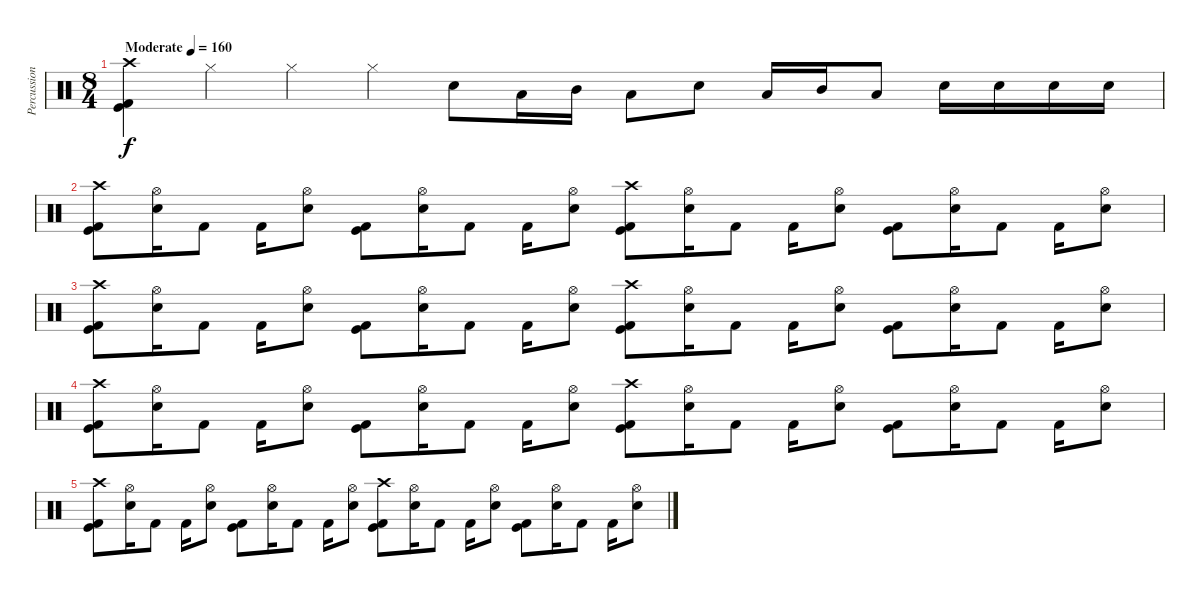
\track ("Percussion" "Percussion") {instrument percussion}
\staff {score}
\articulation defaults
\ts (8 4)
\tempo (160 "Moderate")
\clef neutral
\ks c
("Crash high (hit)" "Kick (hit)" "Kick (hit) 2").4{dy f} "Hi-Hat (closed)".4 "Hi-Hat (closed)".4 "Hi-Hat (closed)".4 "Electric Snare (hit)".8 "Low Tom (hit)".16 "Mid Tom (hit)".16 "Low Tom (hit)".8 "Electric Snare (hit)".8 "Low Tom (hit)".16 "Mid Tom (hit)".16 "Low Tom (hit)".8 "Electric Snare (hit)".16 "Electric Snare (hit)".16 "Electric Snare (hit)".16 "Electric Snare (hit)".16 |
("Crash high (hit)" "Kick (hit)" "Kick (hit) 2").8 ("Hi-Hat (open)" "Electric Snare (hit)").16 "Kick (hit) 2".8 "Kick (hit) 2".16 ("Hi-Hat (open)" "Electric Snare (hit)").8 ("Kick (hit)" "Kick (hit) 2").8 ("Hi-Hat (open)" "Electric Snare (hit)").16 "Kick (hit) 2".8 "Kick (hit) 2".16 ("Hi-Hat (open)" "Electric Snare (hit)").8 ("Crash high (hit)" "Kick (hit)" "Kick (hit) 2").8 ("Hi-Hat (open)" "Electric Snare (hit)").16 "Kick (hit) 2".8 "Kick (hit) 2".16 ("Hi-Hat (open)" "Electric Snare (hit)").8 ("Kick (hit)" "Kick (hit) 2").8 ("Hi-Hat (open)" "Electric Snare (hit)").16 "Kick (hit) 2".8 "Kick (hit) 2".16 ("Hi-Hat (open)" "Electric Snare (hit)").8 |
("Crash high (hit)" "Kick (hit)" "Kick (hit) 2").8 ("Hi-Hat (open)" "Electric Snare (hit)").16 "Kick (hit) 2".8 "Kick (hit) 2".16 ("Hi-Hat (open)" "Electric Snare (hit)").8 ("Kick (hit)" "Kick (hit) 2").8 ("Hi-Hat (open)" "Electric Snare (hit)").16 "Kick (hit) 2".8 "Kick (hit) 2".16 ("Hi-Hat (open)" "Electric Snare (hit)").8 ("Crash high (hit)" "Kick (hit)" "Kick (hit) 2").8 ("Hi-Hat (open)" "Electric Snare (hit)").16 "Kick (hit) 2".8 "Kick (hit) 2".16 ("Hi-Hat (open)" "Electric Snare (hit)").8 ("Kick (hit)" "Kick (hit) 2").8 ("Hi-Hat (open)" "Electric Snare (hit)").16 "Kick (hit) 2".8 "Kick (hit) 2".16 ("Hi-Hat (open)" "Electric Snare (hit)").8 |
("Crash high (hit)" "Kick (hit)" "Kick (hit) 2").8 ("Hi-Hat (open)" "Electric Snare (hit)").16 "Kick (hit) 2".8 "Kick (hit) 2".16 ("Hi-Hat (open)" "Electric Snare (hit)").8 ("Kick (hit)" "Kick (hit) 2").8 ("Hi-Hat (open)" "Electric Snare (hit)").16 "Kick (hit) 2".8 "Kick (hit) 2".16 ("Hi-Hat (open)" "Electric Snare (hit)").8 ("Crash high (hit)" "Kick (hit)" "Kick (hit) 2").8 ("Hi-Hat (open)" "Electric Snare (hit)").16 "Kick (hit) 2".8 "Kick (hit) 2".16 ("Hi-Hat (open)" "Electric Snare (hit)").8 ("Kick (hit)" "Kick (hit) 2").8 ("Hi-Hat (open)" "Electric Snare (hit)").16 "Kick (hit) 2".8 "Kick (hit) 2".16 ("Hi-Hat (open)" "Electric Snare (hit)").8 |
("Crash high (hit)" "Kick (hit)" "Kick (hit) 2").8 ("Hi-Hat (open)" "Electric Snare (hit)").16 "Kick (hit) 2".8 "Kick (hit) 2".16 ("Hi-Hat (open)" "Electric Snare (hit)").8 ("Kick (hit)" "Kick (hit) 2").8 ("Hi-Hat (open)" "Electric Snare (hit)").16 "Kick (hit) 2".8 "Kick (hit) 2".16 ("Hi-Hat (open)" "Electric Snare (hit)").8 ("Crash high (hit)" "Kick (hit)" "Kick (hit) 2").8 ("Hi-Hat (open)" "Electric Snare (hit)").16 "Kick (hit) 2".8 "Kick (hit) 2".16 ("Hi-Hat (open)" "Electric Snare (hit)").8 ("Kick (hit)" "Kick (hit) 2").8 ("Hi-Hat (open)" "Electric Snare (hit)").16 "Kick (hit) 2".8 "Kick (hit) 2".16 ("Hi-Hat (open)" "Electric Snare (hit)").8
